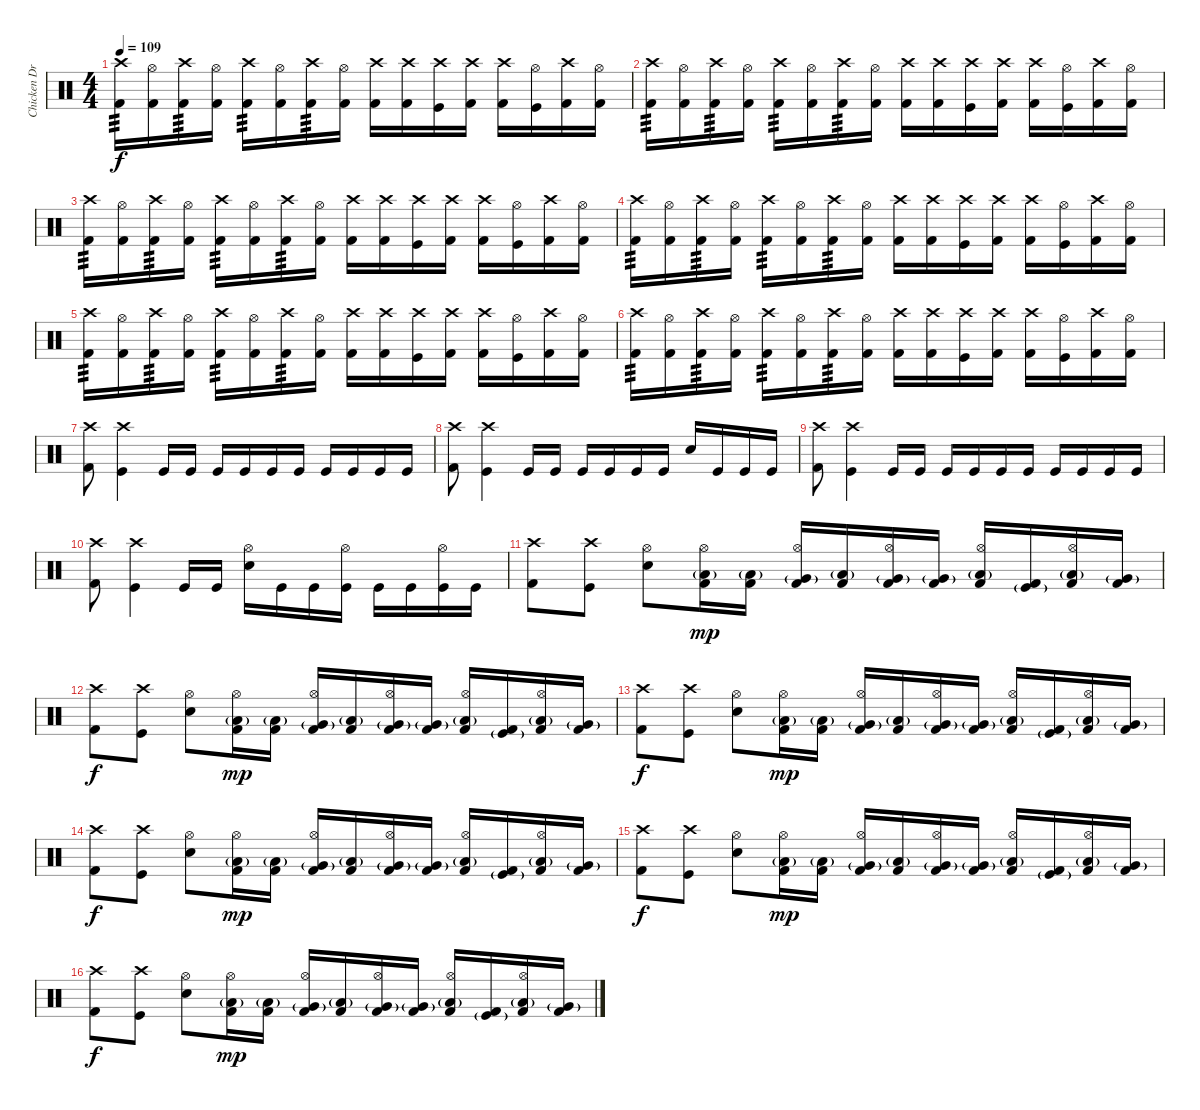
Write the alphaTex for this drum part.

\track ("Chicken Drum" "Chicken Dr") {instrument percussion}
\staff {score}
\articulation defaults
\ts (4 4)
\tempo 109
\clef neutral
\ks c
("Crash high (hit)" "Kick (hit) 2").16{tp 3 dy f} ("Hi-Hat (open)" "Kick (hit) 2").16 ("Crash high (hit)" "Kick (hit) 2").16{tp 3} ("Hi-Hat (open)" "Kick (hit) 2").16 ("Crash high (hit)" "Kick (hit) 2").16{tp 3} ("Hi-Hat (open)" "Kick (hit) 2").16 ("Crash high (hit)" "Kick (hit) 2").16{tp 3} ("Hi-Hat (open)" "Kick (hit) 2").16 ("Crash high (hit)" "Kick (hit) 2").16 ("Crash high (hit)" "Kick (hit) 2").16 ("Crash high (hit)" "Kick (hit)").16 ("Crash high (hit)" "Kick (hit) 2").16 ("Crash high (hit)" "Kick (hit) 2").16 ("Hi-Hat (open)" "Kick (hit)").16 ("Crash high (hit)" "Kick (hit) 2").16 ("Hi-Hat (open)" "Kick (hit) 2").16 |
("Crash high (hit)" "Kick (hit) 2").16{tp 3} ("Hi-Hat (open)" "Kick (hit) 2").16 ("Crash high (hit)" "Kick (hit) 2").16{tp 3} ("Hi-Hat (open)" "Kick (hit) 2").16 ("Crash high (hit)" "Kick (hit) 2").16{tp 3} ("Hi-Hat (open)" "Kick (hit) 2").16 ("Crash high (hit)" "Kick (hit) 2").16{tp 3} ("Hi-Hat (open)" "Kick (hit) 2").16 ("Crash high (hit)" "Kick (hit) 2").16 ("Crash high (hit)" "Kick (hit) 2").16 ("Crash high (hit)" "Kick (hit)").16 ("Crash high (hit)" "Kick (hit) 2").16 ("Crash high (hit)" "Kick (hit) 2").16 ("Hi-Hat (open)" "Kick (hit)").16 ("Crash high (hit)" "Kick (hit) 2").16 ("Hi-Hat (open)" "Kick (hit) 2").16 |
("Crash high (hit)" "Kick (hit) 2").16{tp 3} ("Hi-Hat (open)" "Kick (hit) 2").16 ("Crash high (hit)" "Kick (hit) 2").16{tp 3} ("Hi-Hat (open)" "Kick (hit) 2").16 ("Crash high (hit)" "Kick (hit) 2").16{tp 3} ("Hi-Hat (open)" "Kick (hit) 2").16 ("Crash high (hit)" "Kick (hit) 2").16{tp 3} ("Hi-Hat (open)" "Kick (hit) 2").16 ("Crash high (hit)" "Kick (hit) 2").16 ("Crash high (hit)" "Kick (hit) 2").16 ("Crash high (hit)" "Kick (hit)").16 ("Crash high (hit)" "Kick (hit) 2").16 ("Crash high (hit)" "Kick (hit) 2").16 ("Hi-Hat (open)" "Kick (hit)").16 ("Crash high (hit)" "Kick (hit) 2").16 ("Hi-Hat (open)" "Kick (hit) 2").16 |
("Crash high (hit)" "Kick (hit) 2").16{tp 3} ("Hi-Hat (open)" "Kick (hit) 2").16 ("Crash high (hit)" "Kick (hit) 2").16{tp 3} ("Hi-Hat (open)" "Kick (hit) 2").16 ("Crash high (hit)" "Kick (hit) 2").16{tp 3} ("Hi-Hat (open)" "Kick (hit) 2").16 ("Crash high (hit)" "Kick (hit) 2").16{tp 3} ("Hi-Hat (open)" "Kick (hit) 2").16 ("Crash high (hit)" "Kick (hit) 2").16 ("Crash high (hit)" "Kick (hit) 2").16 ("Crash high (hit)" "Kick (hit)").16 ("Crash high (hit)" "Kick (hit) 2").16 ("Crash high (hit)" "Kick (hit) 2").16 ("Hi-Hat (open)" "Kick (hit)").16 ("Crash high (hit)" "Kick (hit) 2").16 ("Hi-Hat (open)" "Kick (hit) 2").16 |
("Crash high (hit)" "Kick (hit) 2").16{tp 3} ("Hi-Hat (open)" "Kick (hit) 2").16 ("Crash high (hit)" "Kick (hit) 2").16{tp 3} ("Hi-Hat (open)" "Kick (hit) 2").16 ("Crash high (hit)" "Kick (hit) 2").16{tp 3} ("Hi-Hat (open)" "Kick (hit) 2").16 ("Crash high (hit)" "Kick (hit) 2").16{tp 3} ("Hi-Hat (open)" "Kick (hit) 2").16 ("Crash high (hit)" "Kick (hit) 2").16 ("Crash high (hit)" "Kick (hit) 2").16 ("Crash high (hit)" "Kick (hit)").16 ("Crash high (hit)" "Kick (hit) 2").16 ("Crash high (hit)" "Kick (hit) 2").16 ("Hi-Hat (open)" "Kick (hit)").16 ("Crash high (hit)" "Kick (hit) 2").16 ("Hi-Hat (open)" "Kick (hit) 2").16 |
("Crash high (hit)" "Kick (hit) 2").16{tp 3} ("Hi-Hat (open)" "Kick (hit) 2").16 ("Crash high (hit)" "Kick (hit) 2").16{tp 3} ("Hi-Hat (open)" "Kick (hit) 2").16 ("Crash high (hit)" "Kick (hit) 2").16{tp 3} ("Hi-Hat (open)" "Kick (hit) 2").16 ("Crash high (hit)" "Kick (hit) 2").16{tp 3} ("Hi-Hat (open)" "Kick (hit) 2").16 ("Crash high (hit)" "Kick (hit) 2").16 ("Crash high (hit)" "Kick (hit) 2").16 ("Crash high (hit)" "Kick (hit)").16 ("Crash high (hit)" "Kick (hit) 2").16 ("Crash high (hit)" "Kick (hit) 2").16 ("Hi-Hat (open)" "Kick (hit)").16 ("Crash high (hit)" "Kick (hit) 2").16 ("Hi-Hat (open)" "Kick (hit) 2").16 |
("Crash high (hit)" "Kick (hit) 2").8 ("Crash high (hit)" "Kick (hit)").4 "Kick (hit)".16 "Kick (hit)".16 "Kick (hit)".16 "Kick (hit)".16 "Kick (hit)".16 "Kick (hit)".16 "Kick (hit)".16 "Kick (hit)".16 "Kick (hit)".16 "Kick (hit)".16 |
("Crash high (hit)" "Kick (hit) 2").8 ("Crash high (hit)" "Kick (hit)").4 "Kick (hit)".16 "Kick (hit)".16 "Kick (hit)".16 "Kick (hit)".16 "Kick (hit)".16 "Kick (hit)".16 "Snare (hit) 2".16 "Kick (hit)".16 "Kick (hit)".16 "Kick (hit)".16 |
("Crash high (hit)" "Kick (hit) 2").8 ("Crash high (hit)" "Kick (hit)").4 "Kick (hit)".16 "Kick (hit)".16 "Kick (hit)".16 "Kick (hit)".16 "Kick (hit)".16 "Kick (hit)".16 "Kick (hit)".16 "Kick (hit)".16 "Kick (hit)".16 "Kick (hit)".16 |
("Crash high (hit)" "Kick (hit) 2").8 ("Crash high (hit)" "Kick (hit)").4 "Kick (hit)".16 "Kick (hit)".16 ("Hi-Hat (open)" "Snare (hit) 2").16 "Kick (hit)".16 "Kick (hit)".16 ("Hi-Hat (open)" "Kick (hit)").16 "Kick (hit)".16 "Kick (hit)".16 ("Hi-Hat (open)" "Kick (hit)").16 "Kick (hit)".16 |
("Crash high (hit)" "Kick (hit) 2").8 ("Crash high (hit)" "Kick (hit)").8 ("Hi-Hat (open)" "Snare (hit) 2").8 ("Hi-Hat (open)" "Low Floor Tom (hit)"{g} "Kick (hit) 2").16{dy mp} ("Low Floor Tom (hit)"{g} "Kick (hit) 2").16 ("Hi-Hat (open)" "Very Low Tom (hit)"{g} "Kick (hit) 2").16 ("Low Tom (hit)"{g} "Kick (hit) 2").16 ("Hi-Hat (open)" "Very Low Tom (hit)"{g} "Kick (hit) 2").16 ("Very Low Tom (hit)"{g} "Kick (hit) 2").16 ("Hi-Hat (open)" "Low Tom (hit)"{g} "Kick (hit) 2").16 ("Kick (hit)"{g} "Kick (hit) 2").16 ("Hi-Hat (open)" "Low Tom (hit)"{g} "Kick (hit) 2").16 ("Very Low Tom (hit)"{g} "Kick (hit) 2").16 |
("Crash high (hit)" "Kick (hit) 2").8{dy f} ("Crash high (hit)" "Kick (hit)").8 ("Hi-Hat (open)" "Snare (hit) 2").8 ("Hi-Hat (open)" "Low Floor Tom (hit)"{g} "Kick (hit) 2").16{dy mp} ("Low Floor Tom (hit)"{g} "Kick (hit) 2").16 ("Hi-Hat (open)" "Very Low Tom (hit)"{g} "Kick (hit) 2").16 ("Low Tom (hit)"{g} "Kick (hit) 2").16 ("Hi-Hat (open)" "Very Low Tom (hit)"{g} "Kick (hit) 2").16 ("Very Low Tom (hit)"{g} "Kick (hit) 2").16 ("Hi-Hat (open)" "Low Tom (hit)"{g} "Kick (hit) 2").16 ("Kick (hit)"{g} "Kick (hit) 2").16 ("Hi-Hat (open)" "Low Tom (hit)"{g} "Kick (hit) 2").16 ("Very Low Tom (hit)"{g} "Kick (hit) 2").16 |
("Crash high (hit)" "Kick (hit) 2").8{dy f} ("Crash high (hit)" "Kick (hit)").8 ("Hi-Hat (open)" "Snare (hit) 2").8 ("Hi-Hat (open)" "Low Floor Tom (hit)"{g} "Kick (hit) 2").16{dy mp} ("Low Floor Tom (hit)"{g} "Kick (hit) 2").16 ("Hi-Hat (open)" "Very Low Tom (hit)"{g} "Kick (hit) 2").16 ("Low Tom (hit)"{g} "Kick (hit) 2").16 ("Hi-Hat (open)" "Very Low Tom (hit)"{g} "Kick (hit) 2").16 ("Very Low Tom (hit)"{g} "Kick (hit) 2").16 ("Hi-Hat (open)" "Low Tom (hit)"{g} "Kick (hit) 2").16 ("Kick (hit)"{g} "Kick (hit) 2").16 ("Hi-Hat (open)" "Low Tom (hit)"{g} "Kick (hit) 2").16 ("Very Low Tom (hit)"{g} "Kick (hit) 2").16 |
("Crash high (hit)" "Kick (hit) 2").8{dy f} ("Crash high (hit)" "Kick (hit)").8 ("Hi-Hat (open)" "Snare (hit) 2").8 ("Hi-Hat (open)" "Low Floor Tom (hit)"{g} "Kick (hit) 2").16{dy mp} ("Low Floor Tom (hit)"{g} "Kick (hit) 2").16 ("Hi-Hat (open)" "Very Low Tom (hit)"{g} "Kick (hit) 2").16 ("Low Tom (hit)"{g} "Kick (hit) 2").16 ("Hi-Hat (open)" "Very Low Tom (hit)"{g} "Kick (hit) 2").16 ("Very Low Tom (hit)"{g} "Kick (hit) 2").16 ("Hi-Hat (open)" "Low Tom (hit)"{g} "Kick (hit) 2").16 ("Kick (hit)"{g} "Kick (hit) 2").16 ("Hi-Hat (open)" "Low Tom (hit)"{g} "Kick (hit) 2").16 ("Very Low Tom (hit)"{g} "Kick (hit) 2").16 |
("Crash high (hit)" "Kick (hit) 2").8{dy f} ("Crash high (hit)" "Kick (hit)").8 ("Hi-Hat (open)" "Snare (hit) 2").8 ("Hi-Hat (open)" "Low Floor Tom (hit)"{g} "Kick (hit) 2").16{dy mp} ("Low Floor Tom (hit)"{g} "Kick (hit) 2").16 ("Hi-Hat (open)" "Very Low Tom (hit)"{g} "Kick (hit) 2").16 ("Low Tom (hit)"{g} "Kick (hit) 2").16 ("Hi-Hat (open)" "Very Low Tom (hit)"{g} "Kick (hit) 2").16 ("Very Low Tom (hit)"{g} "Kick (hit) 2").16 ("Hi-Hat (open)" "Low Tom (hit)"{g} "Kick (hit) 2").16 ("Kick (hit)"{g} "Kick (hit) 2").16 ("Hi-Hat (open)" "Low Tom (hit)"{g} "Kick (hit) 2").16 ("Very Low Tom (hit)"{g} "Kick (hit) 2").16 |
("Crash high (hit)" "Kick (hit) 2").8{dy f} ("Crash high (hit)" "Kick (hit)").8 ("Hi-Hat (open)" "Snare (hit) 2").8 ("Hi-Hat (open)" "Low Floor Tom (hit)"{g} "Kick (hit) 2").16{dy mp} ("Low Floor Tom (hit)"{g} "Kick (hit) 2").16 ("Hi-Hat (open)" "Very Low Tom (hit)"{g} "Kick (hit) 2").16 ("Low Tom (hit)"{g} "Kick (hit) 2").16 ("Hi-Hat (open)" "Very Low Tom (hit)"{g} "Kick (hit) 2").16 ("Very Low Tom (hit)"{g} "Kick (hit) 2").16 ("Hi-Hat (open)" "Low Tom (hit)"{g} "Kick (hit) 2").16 ("Kick (hit)"{g} "Kick (hit) 2").16 ("Hi-Hat (open)" "Low Tom (hit)"{g} "Kick (hit) 2").16 ("Very Low Tom (hit)"{g} "Kick (hit) 2").16
